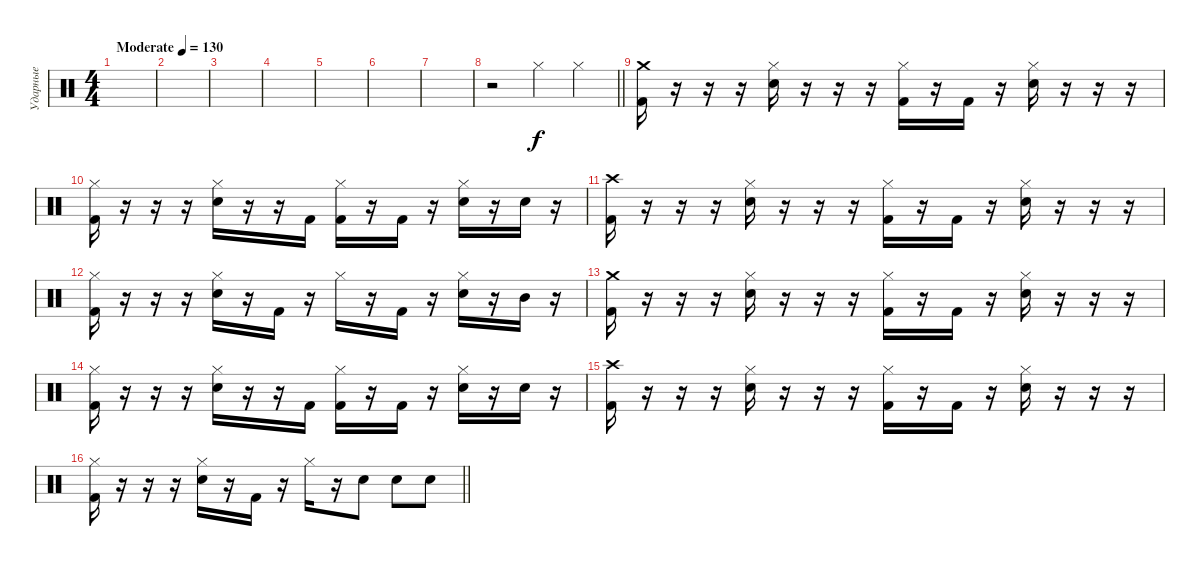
\track ("Ударные" "Ударные") {instrument percussion}
\staff {score}
\articulation defaults
\ts (4 4)
\tempo (130 "Moderate")
\clef neutral
\ks c
|
|
|
|
|
|
|
\barLineRight lightlight
r.2 "Hi-Hat (closed)".4 "Hi-Hat (closed)".4 |
("Kick (hit) 2" "Crash medium (hit)").16 r.16 r.16 r.16 ("Hi-Hat (closed)" "Electric Snare (hit)").16 r.16 r.16 r.16 ("Hi-Hat (closed)" "Kick (hit) 2").16 r.16 "Kick (hit) 2".16 r.16 ("Hi-Hat (closed)" "Electric Snare (hit)").16 r.16 r.16 r.16 |
("Kick (hit) 2" "Hi-Hat (closed)").16 r.16 r.16 r.16 ("Hi-Hat (closed)" "Electric Snare (hit)").16 r.16 r.16 "Kick (hit) 2".16 ("Hi-Hat (closed)" "Kick (hit) 2").16 r.16 "Kick (hit) 2".16 r.16 ("Hi-Hat (closed)" "Electric Snare (hit)").16 r.16 "Electric Snare (hit)".16 r.16 |
("Kick (hit) 2" "Crash high (hit)").16 r.16 r.16 r.16 ("Hi-Hat (closed)" "Electric Snare (hit)").16 r.16 r.16 r.16 ("Hi-Hat (closed)" "Kick (hit) 2").16 r.16 "Kick (hit) 2".16 r.16 ("Hi-Hat (closed)" "Electric Snare (hit)").16 r.16 r.16 r.16 |
("Kick (hit) 2" "Hi-Hat (closed)").16 r.16 r.16 r.16 ("Hi-Hat (closed)" "Electric Snare (hit)").16 r.16 "Kick (hit) 2".16 r.16 "Hi-Hat (closed)".16 r.16 "Kick (hit) 2".16 r.16 ("Hi-Hat (closed)" "Electric Snare (hit)").16 r.16 "Mid Tom (hit)".16 r.16 |
("Kick (hit) 2" "Crash medium (hit)").16 r.16 r.16 r.16 ("Hi-Hat (closed)" "Electric Snare (hit)").16 r.16 r.16 r.16 ("Hi-Hat (closed)" "Kick (hit) 2").16 r.16 "Kick (hit) 2".16 r.16 ("Hi-Hat (closed)" "Electric Snare (hit)").16 r.16 r.16 r.16 |
("Kick (hit) 2" "Hi-Hat (closed)").16 r.16 r.16 r.16 ("Hi-Hat (closed)" "Electric Snare (hit)").16 r.16 r.16 "Kick (hit) 2".16 ("Hi-Hat (closed)" "Kick (hit) 2").16 r.16 "Kick (hit) 2".16 r.16 ("Hi-Hat (closed)" "Electric Snare (hit)").16 r.16 "Electric Snare (hit)".16 r.16 |
("Kick (hit) 2" "Crash high (hit)").16 r.16 r.16 r.16 ("Hi-Hat (closed)" "Electric Snare (hit)").16 r.16 r.16 r.16 ("Hi-Hat (closed)" "Kick (hit) 2").16 r.16 "Kick (hit) 2".16 r.16 ("Hi-Hat (closed)" "Electric Snare (hit)").16 r.16 r.16 r.16 |
\barLineRight lightlight
("Kick (hit) 2" "Hi-Hat (closed)").16 r.16 r.16 r.16 ("Hi-Hat (closed)" "Electric Snare (hit)").16 r.16 "Kick (hit) 2".16 r.16 "Hi-Hat (closed)".16 r.16 "Electric Snare (hit)".8 "Electric Snare (hit)".8 "Electric Snare (hit)".8
